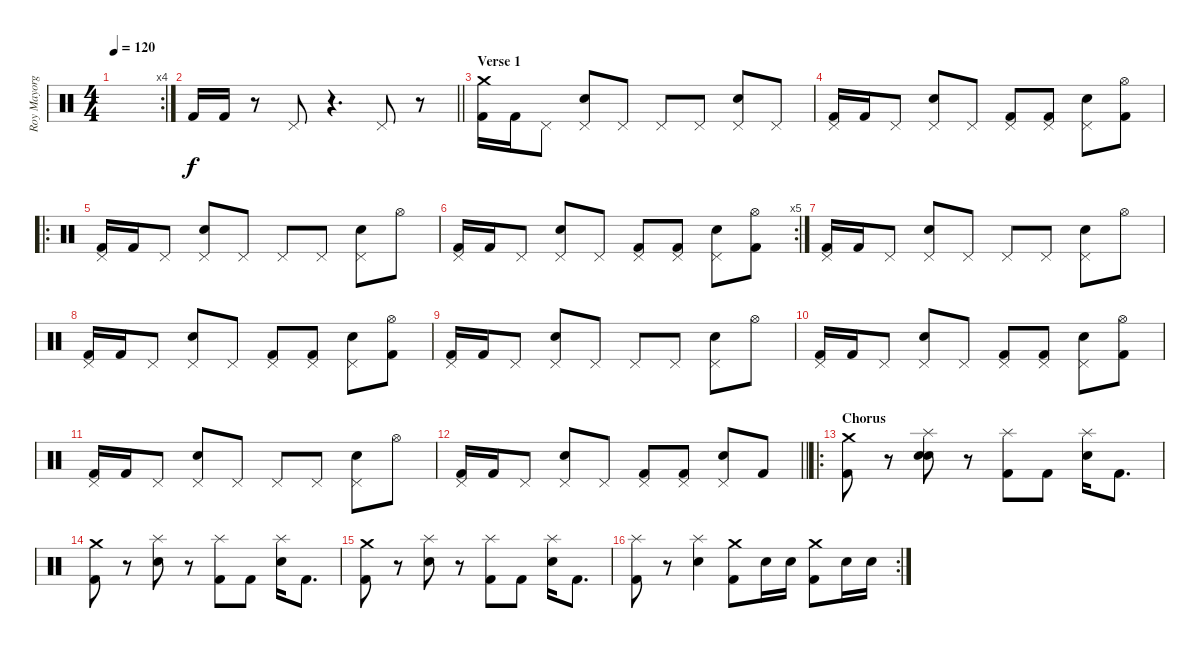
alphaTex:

\track ("Roy Mayorga" "Roy Mayorg") {instrument percussion}
\staff {score}
\articulation defaults
\rc 4
\ts (4 4)
\tempo 120
\clef neutral
\ks c
|
\barLineRight lightlight "Kick (hit) 2".16 "Kick (hit) 2".16
r.8 "Pedal Hi-Hat (hit)".8 r.4{d} "Pedal Hi-Hat (hit)".8 r.8 |
\section ("" "Verse 1")
("Crash medium (hit)" "Kick (hit) 2").16 "Kick (hit) 2".16 "Pedal Hi-Hat (hit)".8 ("Pedal Hi-Hat (hit)" "Electric Snare (hit)").8 "Pedal Hi-Hat (hit)".8 "Pedal Hi-Hat (hit)".8 "Pedal Hi-Hat (hit)".8 ("Pedal Hi-Hat (hit)" "Electric Snare (hit)").8 "Pedal Hi-Hat (hit)".8 |
("Pedal Hi-Hat (hit)" "Kick (hit) 2").16 "Kick (hit) 2".16 "Pedal Hi-Hat (hit)".8 ("Pedal Hi-Hat (hit)" "Electric Snare (hit)").8 "Pedal Hi-Hat (hit)".8 ("Pedal Hi-Hat (hit)" "Kick (hit) 2").8 ("Pedal Hi-Hat (hit)" "Kick (hit) 2").8 ("Pedal Hi-Hat (hit)" "Electric Snare (hit)").8 ("Hi-Hat (open)" "Kick (hit) 2").8 |
\ro
("Pedal Hi-Hat (hit)" "Kick (hit) 2").16 "Kick (hit) 2".16 "Pedal Hi-Hat (hit)".8 ("Pedal Hi-Hat (hit)" "Electric Snare (hit)").8 "Pedal Hi-Hat (hit)".8 "Pedal Hi-Hat (hit)".8 "Pedal Hi-Hat (hit)".8 ("Pedal Hi-Hat (hit)" "Electric Snare (hit)").8 "Hi-Hat (open)".8 |
\rc 5
("Pedal Hi-Hat (hit)" "Kick (hit) 2").16 "Kick (hit) 2".16 "Pedal Hi-Hat (hit)".8 ("Pedal Hi-Hat (hit)" "Electric Snare (hit)").8 "Pedal Hi-Hat (hit)".8 ("Pedal Hi-Hat (hit)" "Kick (hit) 2").8 ("Pedal Hi-Hat (hit)" "Kick (hit) 2").8 ("Pedal Hi-Hat (hit)" "Electric Snare (hit)").8 ("Hi-Hat (open)" "Kick (hit) 2").8 |
("Pedal Hi-Hat (hit)" "Kick (hit) 2").16 "Kick (hit) 2".16 "Pedal Hi-Hat (hit)".8 ("Pedal Hi-Hat (hit)" "Electric Snare (hit)").8 "Pedal Hi-Hat (hit)".8 "Pedal Hi-Hat (hit)".8 "Pedal Hi-Hat (hit)".8 ("Pedal Hi-Hat (hit)" "Electric Snare (hit)").8 "Hi-Hat (open)".8 |
("Pedal Hi-Hat (hit)" "Kick (hit) 2").16 "Kick (hit) 2".16 "Pedal Hi-Hat (hit)".8 ("Pedal Hi-Hat (hit)" "Electric Snare (hit)").8 "Pedal Hi-Hat (hit)".8 ("Pedal Hi-Hat (hit)" "Kick (hit) 2").8 ("Pedal Hi-Hat (hit)" "Kick (hit) 2").8 ("Pedal Hi-Hat (hit)" "Electric Snare (hit)").8 ("Hi-Hat (open)" "Kick (hit) 2").8 |
("Pedal Hi-Hat (hit)" "Kick (hit) 2").16 "Kick (hit) 2".16 "Pedal Hi-Hat (hit)".8 ("Pedal Hi-Hat (hit)" "Electric Snare (hit)").8 "Pedal Hi-Hat (hit)".8 "Pedal Hi-Hat (hit)".8 "Pedal Hi-Hat (hit)".8 ("Pedal Hi-Hat (hit)" "Electric Snare (hit)").8 "Hi-Hat (open)".8 |
("Pedal Hi-Hat (hit)" "Kick (hit) 2").16 "Kick (hit) 2".16 "Pedal Hi-Hat (hit)".8 ("Pedal Hi-Hat (hit)" "Electric Snare (hit)").8 "Pedal Hi-Hat (hit)".8 ("Pedal Hi-Hat (hit)" "Kick (hit) 2").8 ("Pedal Hi-Hat (hit)" "Kick (hit) 2").8 ("Pedal Hi-Hat (hit)" "Electric Snare (hit)").8 ("Hi-Hat (open)" "Kick (hit) 2").8 |
("Pedal Hi-Hat (hit)" "Kick (hit) 2").16 "Kick (hit) 2".16 "Pedal Hi-Hat (hit)".8 ("Pedal Hi-Hat (hit)" "Electric Snare (hit)").8 "Pedal Hi-Hat (hit)".8 "Pedal Hi-Hat (hit)".8 "Pedal Hi-Hat (hit)".8 ("Pedal Hi-Hat (hit)" "Electric Snare (hit)").8 "Hi-Hat (open)".8 |
\barLineRight lightlight
("Pedal Hi-Hat (hit)" "Kick (hit) 2").16 "Kick (hit) 2".16 "Pedal Hi-Hat (hit)".8 ("Pedal Hi-Hat (hit)" "Electric Snare (hit)").8 "Pedal Hi-Hat (hit)".8 ("Pedal Hi-Hat (hit)" "Kick (hit) 2").8 ("Pedal Hi-Hat (hit)" "Kick (hit) 2").8 ("Pedal Hi-Hat (hit)" "Electric Snare (hit)").8 "Kick (hit) 2".8 |
\ro
\section ("" "Chorus")
("Crash medium (hit)" "Kick (hit) 2").8 r.8 ("Splash (hit)" "Electric Snare (hit)" "Electric Snare (hit)").8 r.8 ("Splash (hit)" "Kick (hit) 2").8 "Kick (hit) 2".8 ("Splash (hit)" "Electric Snare (hit)").16 "Kick (hit) 2".8{d} |
("Crash medium (hit)" "Kick (hit) 2").8 r.8 ("Splash (hit)" "Electric Snare (hit)").8 r.8 ("Splash (hit)" "Kick (hit) 2").8 "Kick (hit) 2".8 ("Splash (hit)" "Electric Snare (hit)").16 "Kick (hit) 2".8{d} |
("Crash medium (hit)" "Kick (hit) 2").8 r.8 ("Splash (hit)" "Electric Snare (hit)").8 r.8 ("Splash (hit)" "Kick (hit) 2").8 "Kick (hit) 2".8 ("Splash (hit)" "Electric Snare (hit)").16 "Kick (hit) 2".8{d} |
\rc 2
("Splash (hit)" "Kick (hit) 2").8 r.8 ("Splash (hit)" "Electric Snare (hit)").4 ("Crash medium (hit)" "Kick (hit) 2").8 "Electric Snare (hit)".16 "Electric Snare (hit)".16 ("Crash medium (hit)" "Kick (hit) 2").8 "Electric Snare (hit)".16 "Electric Snare (hit)".16
